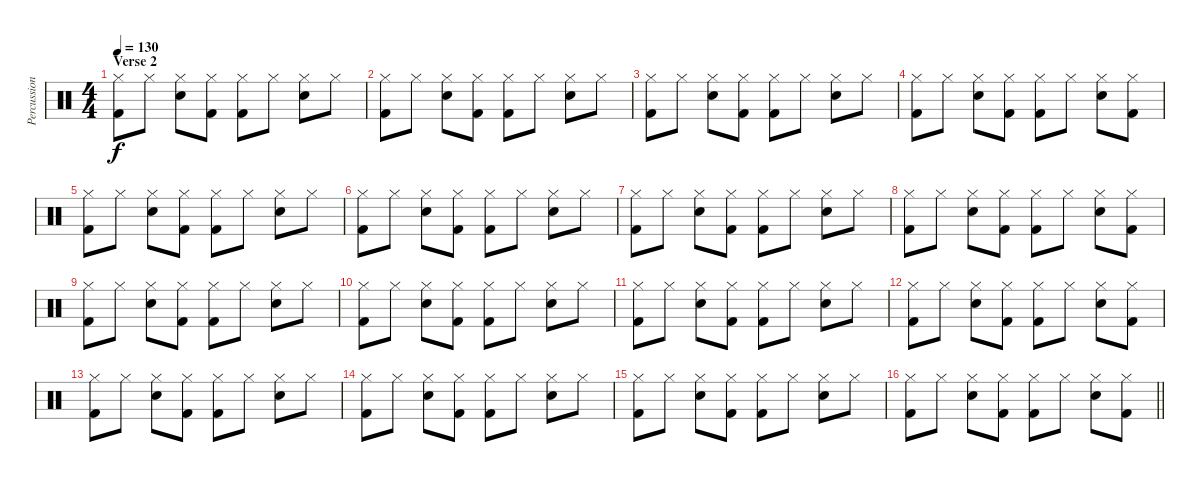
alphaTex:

\track ("Percussion" "Percussion") {instrument percussion}
\staff {score}
\articulation defaults
\ts (4 4)
\section ("" "Verse 2")
\tempo 130
\clef neutral
\ks c
("Hi-Hat (closed)" "Kick (hit) 2").8{dy f} "Hi-Hat (closed)".8 ("Hi-Hat (closed)" "Snare (hit) 2").8 ("Hi-Hat (closed)" "Kick (hit) 2").8 ("Hi-Hat (closed)" "Kick (hit) 2").8 "Hi-Hat (closed)".8 ("Hi-Hat (closed)" "Snare (hit) 2").8 "Hi-Hat (closed)".8 |
("Hi-Hat (closed)" "Kick (hit) 2").8 "Hi-Hat (closed)".8 ("Hi-Hat (closed)" "Snare (hit) 2").8 ("Hi-Hat (closed)" "Kick (hit) 2").8 ("Hi-Hat (closed)" "Kick (hit) 2").8 "Hi-Hat (closed)".8 ("Hi-Hat (closed)" "Snare (hit) 2").8 "Hi-Hat (closed)".8 |
("Hi-Hat (closed)" "Kick (hit) 2").8 "Hi-Hat (closed)".8 ("Hi-Hat (closed)" "Snare (hit) 2").8 ("Hi-Hat (closed)" "Kick (hit) 2").8 ("Hi-Hat (closed)" "Kick (hit) 2").8 "Hi-Hat (closed)".8 ("Hi-Hat (closed)" "Snare (hit) 2").8 "Hi-Hat (closed)".8 |
("Hi-Hat (closed)" "Kick (hit) 2").8 "Hi-Hat (closed)".8 ("Hi-Hat (closed)" "Snare (hit) 2").8 ("Hi-Hat (closed)" "Kick (hit) 2").8 ("Hi-Hat (closed)" "Kick (hit) 2").8 "Hi-Hat (closed)".8 ("Hi-Hat (closed)" "Snare (hit) 2").8 ("Hi-Hat (closed)" "Kick (hit) 2").8 |
("Hi-Hat (closed)" "Kick (hit) 2").8 "Hi-Hat (closed)".8 ("Hi-Hat (closed)" "Snare (hit) 2").8 ("Hi-Hat (closed)" "Kick (hit) 2").8 ("Hi-Hat (closed)" "Kick (hit) 2").8 "Hi-Hat (closed)".8 ("Hi-Hat (closed)" "Snare (hit) 2").8 "Hi-Hat (closed)".8 |
("Hi-Hat (closed)" "Kick (hit) 2").8 "Hi-Hat (closed)".8 ("Hi-Hat (closed)" "Snare (hit) 2").8 ("Hi-Hat (closed)" "Kick (hit) 2").8 ("Hi-Hat (closed)" "Kick (hit) 2").8 "Hi-Hat (closed)".8 ("Hi-Hat (closed)" "Snare (hit) 2").8 "Hi-Hat (closed)".8 |
("Hi-Hat (closed)" "Kick (hit) 2").8 "Hi-Hat (closed)".8 ("Hi-Hat (closed)" "Snare (hit) 2").8 ("Hi-Hat (closed)" "Kick (hit) 2").8 ("Hi-Hat (closed)" "Kick (hit) 2").8 "Hi-Hat (closed)".8 ("Hi-Hat (closed)" "Snare (hit) 2").8 "Hi-Hat (closed)".8 |
("Hi-Hat (closed)" "Kick (hit) 2").8 "Hi-Hat (closed)".8 ("Hi-Hat (closed)" "Snare (hit) 2").8 ("Hi-Hat (closed)" "Kick (hit) 2").8 ("Hi-Hat (closed)" "Kick (hit) 2").8 "Hi-Hat (closed)".8 ("Hi-Hat (closed)" "Snare (hit) 2").8 ("Hi-Hat (closed)" "Kick (hit) 2").8 |
("Hi-Hat (closed)" "Kick (hit) 2").8 "Hi-Hat (closed)".8 ("Hi-Hat (closed)" "Snare (hit) 2").8 ("Hi-Hat (closed)" "Kick (hit) 2").8 ("Hi-Hat (closed)" "Kick (hit) 2").8 "Hi-Hat (closed)".8 ("Hi-Hat (closed)" "Snare (hit) 2").8 "Hi-Hat (closed)".8 |
("Hi-Hat (closed)" "Kick (hit) 2").8 "Hi-Hat (closed)".8 ("Hi-Hat (closed)" "Snare (hit) 2").8 ("Hi-Hat (closed)" "Kick (hit) 2").8 ("Hi-Hat (closed)" "Kick (hit) 2").8 "Hi-Hat (closed)".8 ("Hi-Hat (closed)" "Snare (hit) 2").8 "Hi-Hat (closed)".8 |
("Hi-Hat (closed)" "Kick (hit) 2").8 "Hi-Hat (closed)".8 ("Hi-Hat (closed)" "Snare (hit) 2").8 ("Hi-Hat (closed)" "Kick (hit) 2").8 ("Hi-Hat (closed)" "Kick (hit) 2").8 "Hi-Hat (closed)".8 ("Hi-Hat (closed)" "Snare (hit) 2").8 "Hi-Hat (closed)".8 |
("Hi-Hat (closed)" "Kick (hit) 2").8 "Hi-Hat (closed)".8 ("Hi-Hat (closed)" "Snare (hit) 2").8 ("Hi-Hat (closed)" "Kick (hit) 2").8 ("Hi-Hat (closed)" "Kick (hit) 2").8 "Hi-Hat (closed)".8 ("Hi-Hat (closed)" "Snare (hit) 2").8 ("Hi-Hat (closed)" "Kick (hit) 2").8 |
("Hi-Hat (closed)" "Kick (hit) 2").8 "Hi-Hat (closed)".8 ("Hi-Hat (closed)" "Snare (hit) 2").8 ("Hi-Hat (closed)" "Kick (hit) 2").8 ("Hi-Hat (closed)" "Kick (hit) 2").8 "Hi-Hat (closed)".8 ("Hi-Hat (closed)" "Snare (hit) 2").8 "Hi-Hat (closed)".8 |
("Hi-Hat (closed)" "Kick (hit) 2").8 "Hi-Hat (closed)".8 ("Hi-Hat (closed)" "Snare (hit) 2").8 ("Hi-Hat (closed)" "Kick (hit) 2").8 ("Hi-Hat (closed)" "Kick (hit) 2").8 "Hi-Hat (closed)".8 ("Hi-Hat (closed)" "Snare (hit) 2").8 "Hi-Hat (closed)".8 |
("Hi-Hat (closed)" "Kick (hit) 2").8 "Hi-Hat (closed)".8 ("Hi-Hat (closed)" "Snare (hit) 2").8 ("Hi-Hat (closed)" "Kick (hit) 2").8 ("Hi-Hat (closed)" "Kick (hit) 2").8 "Hi-Hat (closed)".8 ("Hi-Hat (closed)" "Snare (hit) 2").8 "Hi-Hat (closed)".8 |
\barLineRight lightlight
("Hi-Hat (closed)" "Kick (hit) 2").8 "Hi-Hat (closed)".8 ("Hi-Hat (closed)" "Snare (hit) 2").8 ("Hi-Hat (closed)" "Kick (hit) 2").8 ("Hi-Hat (closed)" "Kick (hit) 2").8 "Hi-Hat (closed)".8 ("Hi-Hat (closed)" "Snare (hit) 2").8 ("Hi-Hat (closed)" "Kick (hit) 2").8
